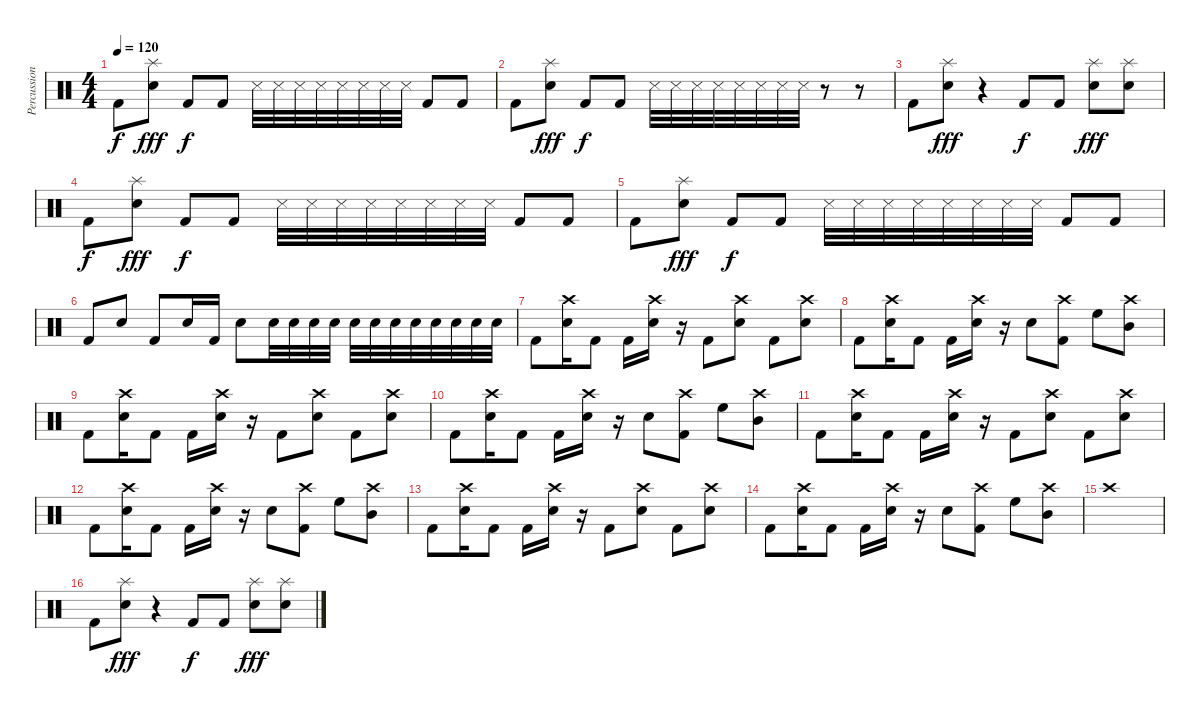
\track ("Percussion" "Percussion") {instrument percussion}
\staff {score}
\articulation defaults
\ts (4 4)
\tempo 120
\clef neutral
\ks c "Kick (hit) 2".8{dy f}
("Splash (hit)" "Electric Snare (hit)").8{dy fff} "Kick (hit) 2".8{dy f} "Kick (hit) 2".8 "Snare (side stick) 3".32 "Snare (side stick) 3".32 "Snare (side stick) 3".32 "Snare (side stick) 3".32 "Snare (side stick) 3".32 "Snare (side stick) 3".32 "Snare (side stick) 3".32 "Snare (side stick) 3".32 "Kick (hit) 2".8 "Kick (hit) 2".8 |
"Kick (hit) 2".8 ("Splash (hit)" "Electric Snare (hit)").8{dy fff} "Kick (hit) 2".8{dy f} "Kick (hit) 2".8 "Snare (side stick) 3".32 "Snare (side stick) 3".32 "Snare (side stick) 3".32 "Snare (side stick) 3".32 "Snare (side stick) 3".32 "Snare (side stick) 3".32 "Snare (side stick) 3".32 "Snare (side stick) 3".32 r.8 r.8 |
"Kick (hit) 2".8 ("Splash (hit)" "Electric Snare (hit)").8{dy fff} r.4 "Kick (hit) 2".8{dy f} "Kick (hit) 2".8 ("Splash (hit)" "Electric Snare (hit)").8{dy fff} ("Splash (hit)" "Electric Snare (hit)").8 |
"Kick (hit) 2".8{dy f} ("Splash (hit)" "Electric Snare (hit)").8{dy fff} "Kick (hit) 2".8{dy f} "Kick (hit) 2".8 "Snare (side stick) 3".32 "Snare (side stick) 3".32 "Snare (side stick) 3".32 "Snare (side stick) 3".32 "Snare (side stick) 3".32 "Snare (side stick) 3".32 "Snare (side stick) 3".32 "Snare (side stick) 3".32 "Kick (hit) 2".8 "Kick (hit) 2".8 |
"Kick (hit) 2".8 ("Splash (hit)" "Electric Snare (hit)").8{dy fff} "Kick (hit) 2".8{dy f} "Kick (hit) 2".8 "Snare (side stick) 3".32 "Snare (side stick) 3".32 "Snare (side stick) 3".32 "Snare (side stick) 3".32 "Snare (side stick) 3".32 "Snare (side stick) 3".32 "Snare (side stick) 3".32 "Snare (side stick) 3".32 "Kick (hit) 2".8 "Kick (hit) 2".8 |
"Kick (hit) 2".8 "Electric Snare (hit)".8 "Kick (hit) 2".8 "Electric Snare (hit)".16 "Kick (hit) 2".16 "Electric Snare (hit)".8 "Electric Snare (hit)".32 "Electric Snare (hit)".32 "Electric Snare (hit)".32 "Electric Snare (hit)".32 "Electric Snare (hit)".32 "Electric Snare (hit)".32 "Electric Snare (hit)".32 "Electric Snare (hit)".32 "Electric Snare (hit)".32 "Electric Snare (hit)".32 "Electric Snare (hit)".32 "Electric Snare (hit)".32 |
"Kick (hit) 2".8 ("Crash high (hit)" "Electric Snare (hit)").16 "Kick (hit) 2".8 "Kick (hit) 2".16 ("Crash high (hit)" "Electric Snare (hit)").16 r.16 "Kick (hit) 2".8 ("Crash high (hit)" "Electric Snare (hit)").8 "Kick (hit) 2".8 ("Crash high (hit)" "Electric Snare (hit)").8 |
"Kick (hit) 2".8 ("Crash high (hit)" "Electric Snare (hit)").16 "Kick (hit) 2".8 "Kick (hit) 2".16 ("Crash high (hit)" "Electric Snare (hit)").16 r.16 "Electric Snare (hit)".8 ("Crash high (hit)" "Kick (hit) 2").8 "High Floor Tom (hit)".8 ("Crash high (hit)" "Mid Tom (hit)").8 |
"Kick (hit) 2".8 ("Crash high (hit)" "Electric Snare (hit)").16 "Kick (hit) 2".8 "Kick (hit) 2".16 ("Crash high (hit)" "Electric Snare (hit)").16 r.16 "Kick (hit) 2".8 ("Crash high (hit)" "Electric Snare (hit)").8 "Kick (hit) 2".8 ("Crash high (hit)" "Electric Snare (hit)").8 |
"Kick (hit) 2".8 ("Crash high (hit)" "Electric Snare (hit)").16 "Kick (hit) 2".8 "Kick (hit) 2".16 ("Crash high (hit)" "Electric Snare (hit)").16 r.16 "Electric Snare (hit)".8 ("Crash high (hit)" "Kick (hit) 2").8 "High Floor Tom (hit)".8 ("Crash high (hit)" "Mid Tom (hit)").8 |
"Kick (hit) 2".8 ("Crash high (hit)" "Electric Snare (hit)").16 "Kick (hit) 2".8 "Kick (hit) 2".16 ("Crash high (hit)" "Electric Snare (hit)").16 r.16 "Kick (hit) 2".8 ("Crash high (hit)" "Electric Snare (hit)").8 "Kick (hit) 2".8 ("Crash high (hit)" "Electric Snare (hit)").8 |
"Kick (hit) 2".8 ("Crash high (hit)" "Electric Snare (hit)").16 "Kick (hit) 2".8 "Kick (hit) 2".16 ("Crash high (hit)" "Electric Snare (hit)").16 r.16 "Electric Snare (hit)".8 ("Crash high (hit)" "Kick (hit) 2").8 "High Floor Tom (hit)".8 ("Crash high (hit)" "Mid Tom (hit)").8 |
"Kick (hit) 2".8 ("Crash high (hit)" "Electric Snare (hit)").16 "Kick (hit) 2".8 "Kick (hit) 2".16 ("Crash high (hit)" "Electric Snare (hit)").16 r.16 "Kick (hit) 2".8 ("Crash high (hit)" "Electric Snare (hit)").8 "Kick (hit) 2".8 ("Crash high (hit)" "Electric Snare (hit)").8 |
"Kick (hit) 2".8 ("Crash high (hit)" "Electric Snare (hit)").16 "Kick (hit) 2".8 "Kick (hit) 2".16 ("Crash high (hit)" "Electric Snare (hit)").16 r.16 "Electric Snare (hit)".8 ("Crash high (hit)" "Kick (hit) 2").8 "High Floor Tom (hit)".8 ("Crash high (hit)" "Mid Tom (hit)").8 |
"Crash high (hit)".1 |
"Kick (hit) 2".8 ("Splash (hit)" "Electric Snare (hit)").8{dy fff} r.4 "Kick (hit) 2".8{dy f} "Kick (hit) 2".8 ("Splash (hit)" "Electric Snare (hit)").8{dy fff} ("Splash (hit)" "Electric Snare (hit)").8
